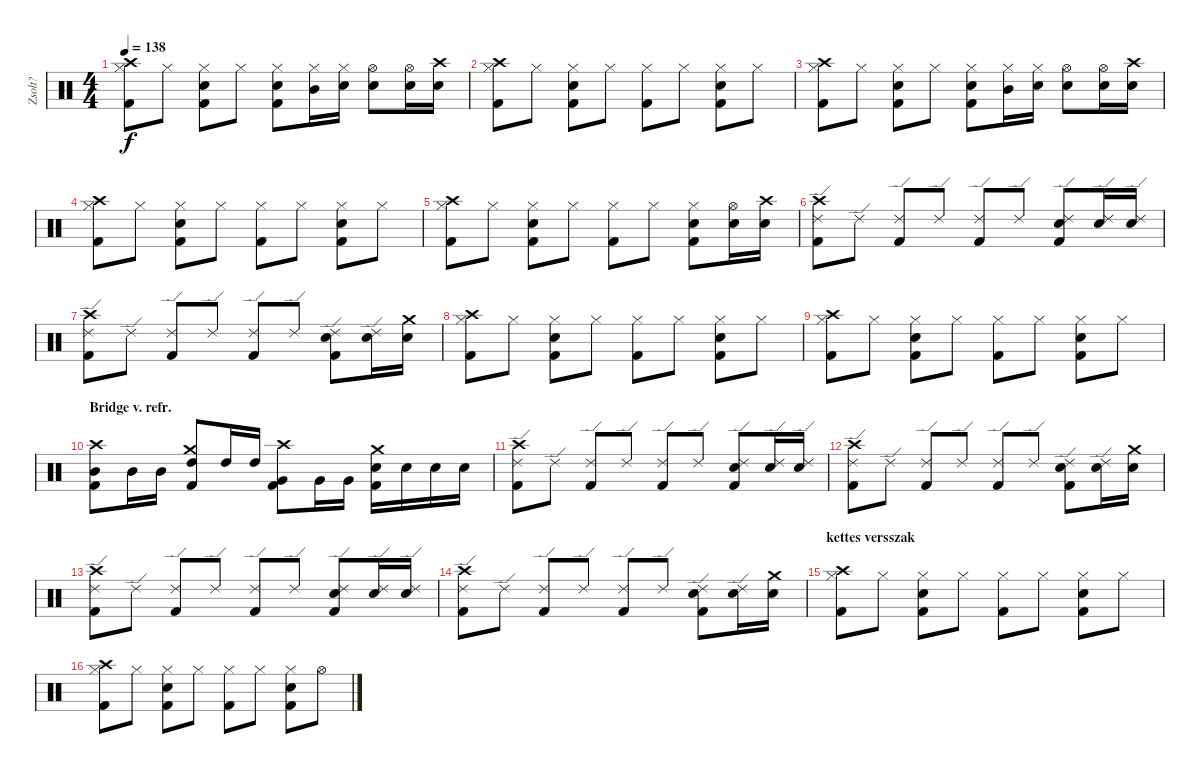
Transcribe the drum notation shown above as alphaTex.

\track ("Zsolt?" "Zsolt?") {instrument percussion}
\staff {score}
\articulation defaults
\ts (4 4)
\tempo 138
\clef neutral
\ks c
("Hi-Hat (closed)" "Crash high (hit)" "Kick (hit) 2").8{dy f} "Hi-Hat (closed)".8 ("Hi-Hat (closed)" "Snare (hit) 2" "Kick (hit) 2").8 "Hi-Hat (closed)".8 ("Hi-Hat (closed)" "Snare (hit) 2" "Kick (hit) 2").8 ("Hi-Hat (closed)" "Mid Tom (hit)").16 ("Hi-Hat (closed)" "Snare (hit) 2").16 ("Hi-Hat (open)" "Snare (hit) 2").8 ("Hi-Hat (open)" "Snare (hit) 2").16 ("Crash high (hit)" "Snare (hit) 2").16 |
("Hi-Hat (closed)" "Crash high (hit)" "Kick (hit) 2").8 "Hi-Hat (closed)".8 ("Hi-Hat (closed)" "Snare (hit) 2" "Kick (hit) 2").8 "Hi-Hat (closed)".8 ("Hi-Hat (closed)" "Kick (hit) 2").8 "Hi-Hat (closed)".8 ("Hi-Hat (closed)" "Snare (hit) 2" "Kick (hit) 2").8 "Hi-Hat (closed)".8 |
("Hi-Hat (closed)" "Crash high (hit)" "Kick (hit) 2").8 "Hi-Hat (closed)".8 ("Hi-Hat (closed)" "Snare (hit) 2" "Kick (hit) 2").8 "Hi-Hat (closed)".8 ("Hi-Hat (closed)" "Snare (hit) 2" "Kick (hit) 2").8 ("Hi-Hat (closed)" "Mid Tom (hit)").16 ("Hi-Hat (closed)" "Snare (hit) 2").16 ("Hi-Hat (open)" "Snare (hit) 2").8 ("Hi-Hat (open)" "Snare (hit) 2").16 ("Crash high (hit)" "Snare (hit) 2").16 |
("Hi-Hat (closed)" "Crash high (hit)" "Kick (hit) 2").8 "Hi-Hat (closed)".8 ("Hi-Hat (closed)" "Snare (hit) 2" "Kick (hit) 2").8 "Hi-Hat (closed)".8 ("Hi-Hat (closed)" "Kick (hit) 2").8 "Hi-Hat (closed)".8 ("Hi-Hat (closed)" "Snare (hit) 2" "Kick (hit) 2").8 "Hi-Hat (closed)".8 |
("Hi-Hat (closed)" "Crash high (hit)" "Kick (hit) 2").8 "Hi-Hat (closed)".8 ("Hi-Hat (closed)" "Snare (hit) 2" "Kick (hit) 2").8 "Hi-Hat (closed)".8 ("Hi-Hat (closed)" "Kick (hit) 2").8 "Hi-Hat (closed)".8 ("Hi-Hat (closed)" "Snare (hit) 2" "Kick (hit) 2").8 ("Hi-Hat (open)" "Snare (hit) 2").16 ("Crash high (hit)" "Snare (hit) 2").16 |
("Ride (edge) 2" "Crash high (hit)" "Kick (hit) 2").8 "Ride (edge) 2".8 ("Ride (edge) 2" "Kick (hit) 2").8 "Ride (edge) 2".8 ("Ride (edge) 2" "Kick (hit) 2").8 "Ride (edge) 2".8 ("Ride (edge) 2" "Snare (hit) 2" "Kick (hit) 2").8 ("Ride (edge) 2" "Snare (hit) 2").16 ("Ride (edge) 2" "Snare (hit) 2").16 |
("Ride (edge) 2" "Crash high (hit)" "Kick (hit) 2").8 "Ride (edge) 2".8 ("Ride (edge) 2" "Kick (hit) 2").8 "Ride (edge) 2".8 ("Ride (edge) 2" "Kick (hit) 2").8 "Ride (edge) 2".8 ("Ride (edge) 2" "Snare (hit) 2" "Kick (hit) 2").8 ("Ride (edge) 2" "Snare (hit) 2").16 ("Crash medium (hit)" "Snare (hit) 2").16 |
("Hi-Hat (closed)" "Crash high (hit)" "Kick (hit) 2").8 "Hi-Hat (closed)".8 ("Hi-Hat (closed)" "Snare (hit) 2" "Kick (hit) 2").8 "Hi-Hat (closed)".8 ("Hi-Hat (closed)" "Kick (hit) 2").8 "Hi-Hat (closed)".8 ("Hi-Hat (closed)" "Snare (hit) 2" "Kick (hit) 2").8 "Hi-Hat (closed)".8 |
("Hi-Hat (closed)" "Crash high (hit)" "Kick (hit) 2").8 "Hi-Hat (closed)".8 ("Hi-Hat (closed)" "Snare (hit) 2" "Kick (hit) 2").8 "Hi-Hat (closed)".8 ("Hi-Hat (closed)" "Kick (hit) 2").8 "Hi-Hat (closed)".8 ("Hi-Hat (closed)" "Snare (hit) 2" "Kick (hit) 2").8 "Hi-Hat (closed)".8 |
\section ("" "Bridge v. refr.")
("Crash high (hit)" "Mid Tom (hit)" "Kick (hit) 2").8 "Mid Tom (hit)".16 "Mid Tom (hit)".16 ("Crash medium (hit)" "High Tom (hit)" "Kick (hit) 2").8 "High Tom (hit)".16 "High Tom (hit)".16 ("Crash high (hit)" "Very Low Tom (hit)" "Kick (hit) 2").8 "Very Low Tom (hit)".16 "Very Low Tom (hit)".16 ("Crash medium (hit)" "Snare (hit) 2" "Kick (hit) 2").16 "Snare (hit) 2".16 "Snare (hit) 2".16 "Snare (hit) 2".16 |
("Ride (edge) 2" "Crash high (hit)" "Kick (hit) 2").8 "Ride (edge) 2".8 ("Ride (edge) 2" "Kick (hit) 2").8 "Ride (edge) 2".8 ("Ride (edge) 2" "Kick (hit) 2").8 "Ride (edge) 2".8 ("Ride (edge) 2" "Snare (hit) 2" "Kick (hit) 2").8 ("Ride (edge) 2" "Snare (hit) 2").16 ("Ride (edge) 2" "Snare (hit) 2").16 |
("Ride (edge) 2" "Crash high (hit)" "Kick (hit) 2").8 "Ride (edge) 2".8 ("Ride (edge) 2" "Kick (hit) 2").8 "Ride (edge) 2".8 ("Ride (edge) 2" "Kick (hit) 2").8 "Ride (edge) 2".8 ("Ride (edge) 2" "Snare (hit) 2" "Kick (hit) 2").8 ("Ride (edge) 2" "Snare (hit) 2").16 ("Crash medium (hit)" "Snare (hit) 2").16 |
("Ride (edge) 2" "Crash high (hit)" "Kick (hit) 2").8 "Ride (edge) 2".8 ("Ride (edge) 2" "Kick (hit) 2").8 "Ride (edge) 2".8 ("Ride (edge) 2" "Kick (hit) 2").8 "Ride (edge) 2".8 ("Ride (edge) 2" "Snare (hit) 2" "Kick (hit) 2").8 ("Ride (edge) 2" "Snare (hit) 2").16 ("Ride (edge) 2" "Snare (hit) 2").16 |
("Ride (edge) 2" "Crash high (hit)" "Kick (hit) 2").8 "Ride (edge) 2".8 ("Ride (edge) 2" "Kick (hit) 2").8 "Ride (edge) 2".8 ("Ride (edge) 2" "Kick (hit) 2").8 "Ride (edge) 2".8 ("Ride (edge) 2" "Snare (hit) 2" "Kick (hit) 2").8 ("Ride (edge) 2" "Snare (hit) 2").16 ("Crash medium (hit)" "Snare (hit) 2").16 |
\section ("" "kettes versszak")
("Hi-Hat (closed)" "Crash high (hit)" "Kick (hit) 2").8 "Hi-Hat (closed)".8 ("Hi-Hat (closed)" "Snare (hit) 2" "Kick (hit) 2").8 "Hi-Hat (closed)".8 ("Hi-Hat (closed)" "Kick (hit) 2").8 "Hi-Hat (closed)".8 ("Hi-Hat (closed)" "Snare (hit) 2" "Kick (hit) 2").8 "Hi-Hat (closed)".8 |
("Hi-Hat (closed)" "Crash high (hit)" "Kick (hit) 2").8 "Hi-Hat (closed)".8 ("Hi-Hat (closed)" "Snare (hit) 2" "Kick (hit) 2").8 "Hi-Hat (closed)".8 ("Hi-Hat (closed)" "Kick (hit) 2").8 "Hi-Hat (closed)".8 ("Hi-Hat (closed)" "Snare (hit) 2" "Kick (hit) 2").8 "Hi-Hat (open)".8
